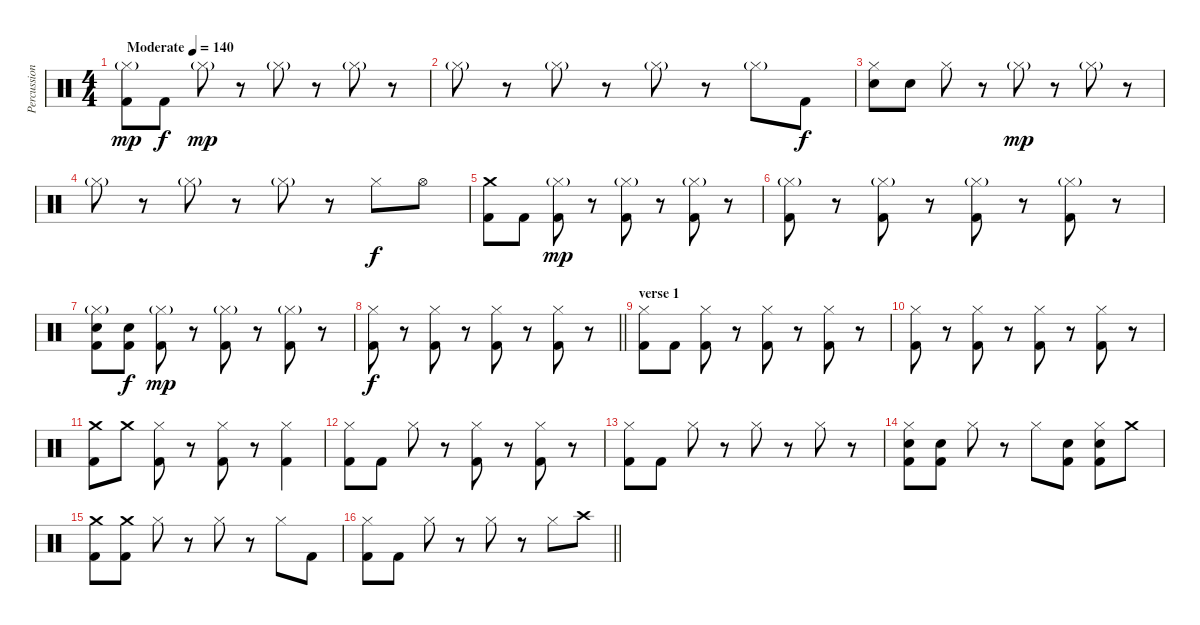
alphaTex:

\track ("Percussion" "Percussion") {instrument percussion}
\staff {score}
\articulation defaults
\ts (4 4)
\tempo (140 "Moderate")
\clef neutral
\ks c
("Hi-Hat (closed)"{g} "Kick (hit) 2").8{dy mp} "Kick (hit) 2".8{dy f} "Hi-Hat (closed)"{g}.8{dy mp} r.8 "Hi-Hat (closed)"{g}.8 r.8 "Hi-Hat (closed)"{g}.8 r.8 |
"Hi-Hat (closed)"{g}.8 r.8 "Hi-Hat (closed)"{g}.8 r.8 "Hi-Hat (closed)"{g}.8 r.8 "Hi-Hat (closed)"{g}.8 "Kick (hit) 2".8{dy f} |
("Hi-Hat (closed)" "Electric Snare (hit)").8 "Electric Snare (hit)".8 "Hi-Hat (closed)".8 r.8 "Hi-Hat (closed)"{g}.8{dy mp} r.8 "Hi-Hat (closed)"{g}.8 r.8 |
"Hi-Hat (closed)"{g}.8 r.8 "Hi-Hat (closed)"{g}.8 r.8 "Hi-Hat (closed)"{g}.8 r.8 "Hi-Hat (closed)".8{dy f} "Hi-Hat (open)".8 |
("Crash medium (hit)" "Kick (hit) 2").8 "Kick (hit) 2".8 ("Hi-Hat (closed)"{g} "Kick (hit) 2").8{dy mp} r.8 ("Hi-Hat (closed)"{g} "Kick (hit) 2").8 r.8 ("Hi-Hat (closed)"{g} "Kick (hit) 2").8 r.8 |
("Hi-Hat (closed)"{g} "Kick (hit) 2").8 r.8 ("Hi-Hat (closed)"{g} "Kick (hit) 2").8 r.8 ("Hi-Hat (closed)"{g} "Kick (hit) 2").8 r.8 ("Hi-Hat (closed)"{g} "Kick (hit) 2").8 r.8 |
("Hi-Hat (closed)"{g} "Electric Snare (hit)" "Kick (hit) 2").8 ("Electric Snare (hit)" "Kick (hit) 2").8{dy f} ("Hi-Hat (closed)"{g} "Kick (hit) 2").8{dy mp} r.8 ("Hi-Hat (closed)"{g} "Kick (hit) 2").8 r.8 ("Hi-Hat (closed)"{g} "Kick (hit) 2").8 r.8 |
\barLineRight lightlight
("Hi-Hat (closed)" "Kick (hit) 2").8{dy f} r.8 ("Hi-Hat (closed)" "Kick (hit) 2").8 r.8 ("Hi-Hat (closed)" "Kick (hit) 2").8 r.8 ("Hi-Hat (closed)" "Kick (hit) 2").8 r.8 |
\section ("" "verse 1")
("Hi-Hat (closed)" "Kick (hit) 2").8 "Kick (hit) 2".8 ("Hi-Hat (closed)" "Kick (hit) 2").8 r.8 ("Hi-Hat (closed)" "Kick (hit) 2").8 r.8 ("Hi-Hat (closed)" "Kick (hit) 2").8 r.8 |
("Hi-Hat (closed)" "Kick (hit) 2").8 r.8 ("Hi-Hat (closed)" "Kick (hit) 2").8 r.8 ("Hi-Hat (closed)" "Kick (hit) 2").8 r.8 ("Hi-Hat (closed)" "Kick (hit) 2").8 r.8 |
("Crash medium (hit)" "Kick (hit) 2").8 "Crash medium (hit)".8 ("Hi-Hat (closed)" "Kick (hit) 2").8 r.8 ("Hi-Hat (closed)" "Kick (hit) 2").8 r.8 ("Hi-Hat (closed)" "Kick (hit) 2").4 |
("Hi-Hat (closed)" "Kick (hit) 2").8 "Kick (hit) 2".8 "Hi-Hat (closed)".8 r.8 ("Hi-Hat (closed)" "Kick (hit) 2").8 r.8 ("Hi-Hat (closed)" "Kick (hit) 2").8 r.8 |
("Hi-Hat (closed)" "Kick (hit) 2").8 "Kick (hit) 2".8 "Hi-Hat (closed)".8 r.8 "Hi-Hat (closed)".8 r.8 "Hi-Hat (closed)".8 r.8 |
("Hi-Hat (closed)" "Electric Snare (hit)" "Kick (hit) 2").8 ("Electric Snare (hit)" "Kick (hit) 2").8 "Hi-Hat (closed)".8 r.8 "Hi-Hat (closed)".8 ("Electric Snare (hit)" "Kick (hit) 2").8 ("Hi-Hat (closed)" "Electric Snare (hit)" "Kick (hit) 2").8 "Crash medium (hit)".8 |
("Crash medium (hit)" "Kick (hit) 2").8 ("Crash medium (hit)" "Kick (hit) 2").8 "Hi-Hat (closed)".8 r.8 "Hi-Hat (closed)".8 r.8 "Hi-Hat (closed)".8 "Kick (hit) 2".8 |
\barLineRight lightlight
("Hi-Hat (closed)" "Kick (hit) 2").8 "Kick (hit) 2".8 "Hi-Hat (closed)".8 r.8 "Hi-Hat (closed)".8 r.8 "Hi-Hat (closed)".8 "Crash high (hit)".8
